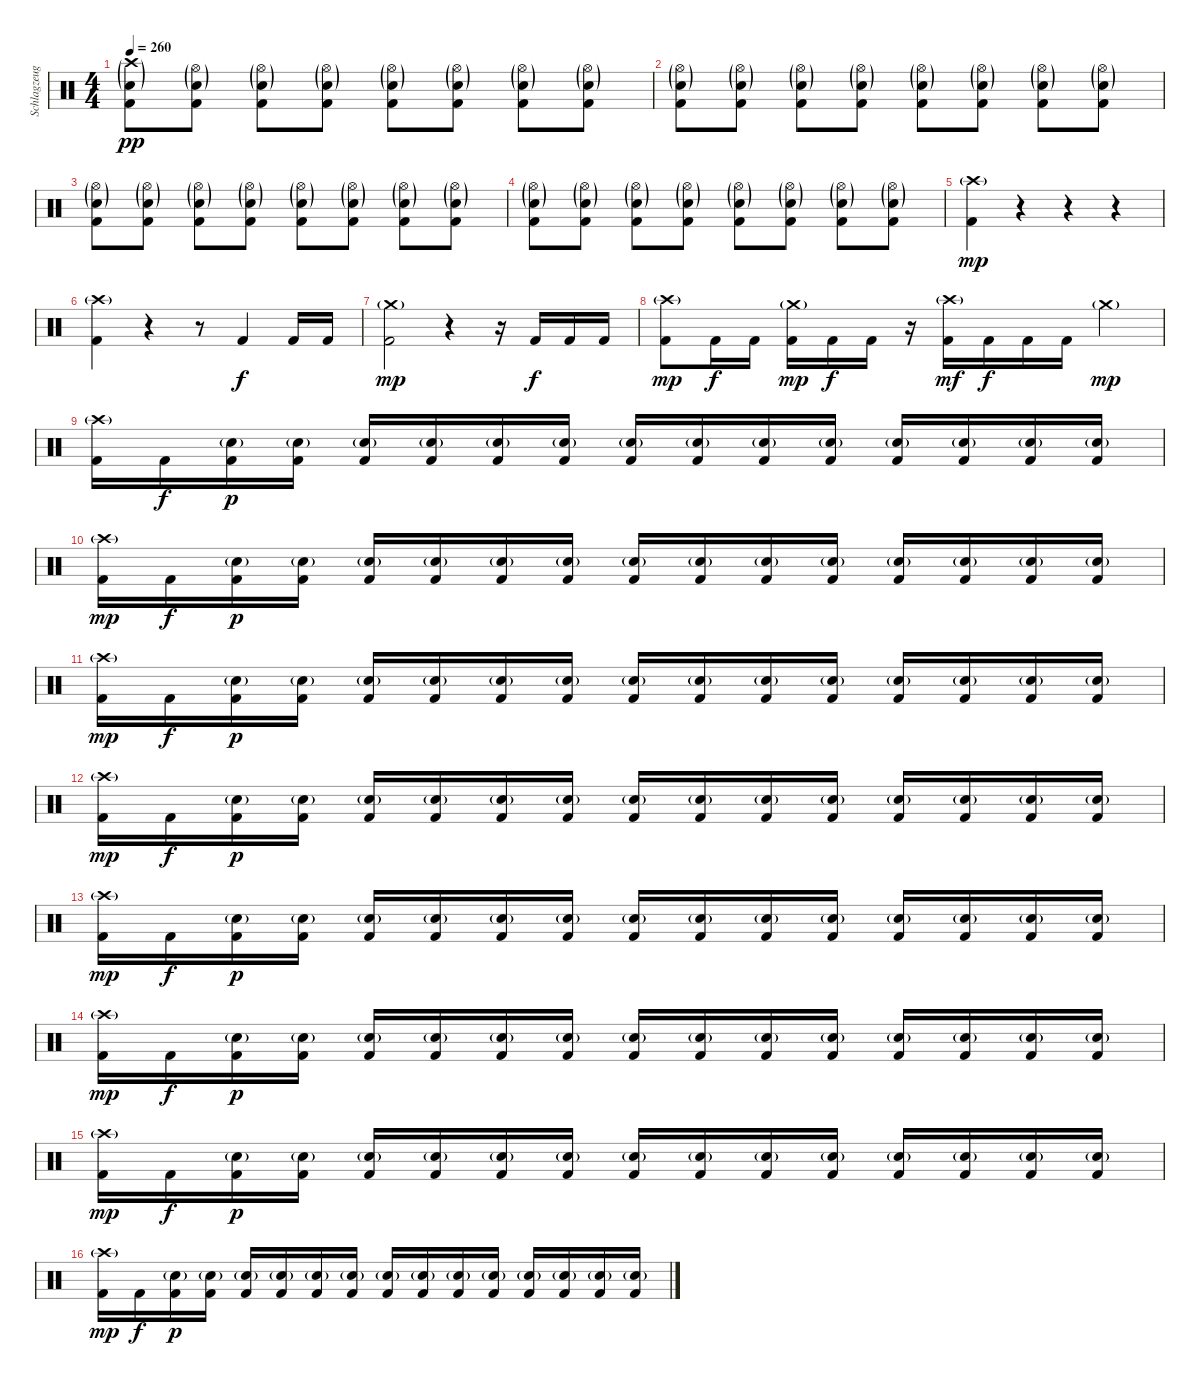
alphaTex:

\track ("Schlagzeug" "Schlagzeug") {instrument percussion}
\staff {score}
\articulation defaults
\ts (4 4)
\tempo 260
\clef neutral
\ks c
("Crash high (hit)"{g} "Electric Snare (hit)"{g} "Kick (hit) 2").8{dy pp} ("Hi-Hat (open)"{g} "Electric Snare (hit)"{g} "Kick (hit) 2").8 ("Hi-Hat (open)"{g} "Electric Snare (hit)"{g} "Kick (hit) 2").8 ("Hi-Hat (open)"{g} "Electric Snare (hit)"{g} "Kick (hit) 2").8 ("Hi-Hat (open)"{g} "Electric Snare (hit)"{g} "Kick (hit) 2").8 ("Hi-Hat (open)"{g} "Electric Snare (hit)"{g} "Kick (hit) 2").8 ("Hi-Hat (open)"{g} "Electric Snare (hit)"{g} "Kick (hit) 2").8 ("Hi-Hat (open)"{g} "Electric Snare (hit)"{g} "Kick (hit) 2").8 |
("Hi-Hat (open)"{g} "Electric Snare (hit)"{g} "Kick (hit) 2").8 ("Hi-Hat (open)"{g} "Electric Snare (hit)"{g} "Kick (hit) 2").8 ("Hi-Hat (open)"{g} "Electric Snare (hit)"{g} "Kick (hit) 2").8 ("Hi-Hat (open)"{g} "Electric Snare (hit)"{g} "Kick (hit) 2").8 ("Hi-Hat (open)"{g} "Electric Snare (hit)"{g} "Kick (hit) 2").8 ("Hi-Hat (open)"{g} "Electric Snare (hit)"{g} "Kick (hit) 2").8 ("Hi-Hat (open)"{g} "Electric Snare (hit)"{g} "Kick (hit) 2").8 ("Hi-Hat (open)"{g} "Electric Snare (hit)"{g} "Kick (hit) 2").8 |
("Hi-Hat (open)"{g} "Electric Snare (hit)"{g} "Kick (hit) 2").8 ("Hi-Hat (open)"{g} "Electric Snare (hit)"{g} "Kick (hit) 2").8 ("Hi-Hat (open)"{g} "Electric Snare (hit)"{g} "Kick (hit) 2").8 ("Hi-Hat (open)"{g} "Electric Snare (hit)"{g} "Kick (hit) 2").8 ("Hi-Hat (open)"{g} "Electric Snare (hit)"{g} "Kick (hit) 2").8 ("Hi-Hat (open)"{g} "Electric Snare (hit)"{g} "Kick (hit) 2").8 ("Hi-Hat (open)"{g} "Electric Snare (hit)"{g} "Kick (hit) 2").8 ("Hi-Hat (open)"{g} "Electric Snare (hit)"{g} "Kick (hit) 2").8 |
("Hi-Hat (open)"{g} "Electric Snare (hit)"{g} "Kick (hit) 2").8 ("Hi-Hat (open)"{g} "Electric Snare (hit)"{g} "Kick (hit) 2").8 ("Hi-Hat (open)"{g} "Electric Snare (hit)"{g} "Kick (hit) 2").8 ("Hi-Hat (open)"{g} "Electric Snare (hit)"{g} "Kick (hit) 2").8 ("Hi-Hat (open)"{g} "Electric Snare (hit)"{g} "Kick (hit) 2").8 ("Hi-Hat (open)"{g} "Electric Snare (hit)"{g} "Kick (hit) 2").8 ("Hi-Hat (open)"{g} "Electric Snare (hit)"{g} "Kick (hit) 2").8 ("Hi-Hat (open)"{g} "Electric Snare (hit)"{g} "Kick (hit) 2").8 |
("Crash high (hit)"{g} "Kick (hit) 2").4{dy mp} r.4 r.4 r.4 |
("Crash high (hit)"{g} "Kick (hit) 2").4 r.4 r.8 "Kick (hit) 2".4{dy f} "Kick (hit) 2".16 "Kick (hit) 2".16 |
("Crash medium (hit)"{g} "Kick (hit) 2").2{dy mp} r.4 r.16 "Kick (hit) 2".16{dy f} "Kick (hit) 2".16 "Kick (hit) 2".16 |
("Crash high (hit)"{g} "Kick (hit) 2").8{dy mp} "Kick (hit) 2".16{dy f} "Kick (hit) 2".16 ("Crash medium (hit)"{g} "Kick (hit) 2").16{dy mp} "Kick (hit) 2".16{dy f} "Kick (hit) 2".16 r.16 ("Crash high (hit)"{g} "Kick (hit) 2").16{dy mf} "Kick (hit) 2".16{dy f} "Kick (hit) 2".16 "Kick (hit) 2".16 "Crash medium (hit)"{g}.4{dy mp} |
("Crash high (hit)"{g} "Kick (hit) 2").16 "Kick (hit) 2".16{dy f} ("Electric Snare (hit)"{g} "Kick (hit) 2").16{dy p} ("Electric Snare (hit)"{g} "Kick (hit) 2").16 ("Electric Snare (hit)"{g} "Kick (hit) 2").16 ("Electric Snare (hit)"{g} "Kick (hit) 2").16 ("Electric Snare (hit)"{g} "Kick (hit) 2").16 ("Electric Snare (hit)"{g} "Kick (hit) 2").16 ("Electric Snare (hit)"{g} "Kick (hit) 2").16 ("Electric Snare (hit)"{g} "Kick (hit) 2").16 ("Electric Snare (hit)"{g} "Kick (hit) 2").16 ("Electric Snare (hit)"{g} "Kick (hit) 2").16 ("Electric Snare (hit)"{g} "Kick (hit) 2").16 ("Electric Snare (hit)"{g} "Kick (hit) 2").16 ("Electric Snare (hit)"{g} "Kick (hit) 2").16 ("Electric Snare (hit)"{g} "Kick (hit) 2").16 |
("Crash high (hit)"{g} "Kick (hit) 2").16{dy mp} "Kick (hit) 2".16{dy f} ("Electric Snare (hit)"{g} "Kick (hit) 2").16{dy p} ("Electric Snare (hit)"{g} "Kick (hit) 2").16 ("Electric Snare (hit)"{g} "Kick (hit) 2").16 ("Electric Snare (hit)"{g} "Kick (hit) 2").16 ("Electric Snare (hit)"{g} "Kick (hit) 2").16 ("Electric Snare (hit)"{g} "Kick (hit) 2").16 ("Electric Snare (hit)"{g} "Kick (hit) 2").16 ("Electric Snare (hit)"{g} "Kick (hit) 2").16 ("Electric Snare (hit)"{g} "Kick (hit) 2").16 ("Electric Snare (hit)"{g} "Kick (hit) 2").16 ("Electric Snare (hit)"{g} "Kick (hit) 2").16 ("Electric Snare (hit)"{g} "Kick (hit) 2").16 ("Electric Snare (hit)"{g} "Kick (hit) 2").16 ("Electric Snare (hit)"{g} "Kick (hit) 2").16 |
("Crash high (hit)"{g} "Kick (hit) 2").16{dy mp} "Kick (hit) 2".16{dy f} ("Electric Snare (hit)"{g} "Kick (hit) 2").16{dy p} ("Electric Snare (hit)"{g} "Kick (hit) 2").16 ("Electric Snare (hit)"{g} "Kick (hit) 2").16 ("Electric Snare (hit)"{g} "Kick (hit) 2").16 ("Electric Snare (hit)"{g} "Kick (hit) 2").16 ("Electric Snare (hit)"{g} "Kick (hit) 2").16 ("Electric Snare (hit)"{g} "Kick (hit) 2").16 ("Electric Snare (hit)"{g} "Kick (hit) 2").16 ("Electric Snare (hit)"{g} "Kick (hit) 2").16 ("Electric Snare (hit)"{g} "Kick (hit) 2").16 ("Electric Snare (hit)"{g} "Kick (hit) 2").16 ("Electric Snare (hit)"{g} "Kick (hit) 2").16 ("Electric Snare (hit)"{g} "Kick (hit) 2").16 ("Electric Snare (hit)"{g} "Kick (hit) 2").16 |
("Crash high (hit)"{g} "Kick (hit) 2").16{dy mp} "Kick (hit) 2".16{dy f} ("Electric Snare (hit)"{g} "Kick (hit) 2").16{dy p} ("Electric Snare (hit)"{g} "Kick (hit) 2").16 ("Electric Snare (hit)"{g} "Kick (hit) 2").16 ("Electric Snare (hit)"{g} "Kick (hit) 2").16 ("Electric Snare (hit)"{g} "Kick (hit) 2").16 ("Electric Snare (hit)"{g} "Kick (hit) 2").16 ("Electric Snare (hit)"{g} "Kick (hit) 2").16 ("Electric Snare (hit)"{g} "Kick (hit) 2").16 ("Electric Snare (hit)"{g} "Kick (hit) 2").16 ("Electric Snare (hit)"{g} "Kick (hit) 2").16 ("Electric Snare (hit)"{g} "Kick (hit) 2").16 ("Electric Snare (hit)"{g} "Kick (hit) 2").16 ("Electric Snare (hit)"{g} "Kick (hit) 2").16 ("Electric Snare (hit)"{g} "Kick (hit) 2").16 |
("Crash high (hit)"{g} "Kick (hit) 2").16{dy mp} "Kick (hit) 2".16{dy f} ("Electric Snare (hit)"{g} "Kick (hit) 2").16{dy p} ("Electric Snare (hit)"{g} "Kick (hit) 2").16 ("Electric Snare (hit)"{g} "Kick (hit) 2").16 ("Electric Snare (hit)"{g} "Kick (hit) 2").16 ("Electric Snare (hit)"{g} "Kick (hit) 2").16 ("Electric Snare (hit)"{g} "Kick (hit) 2").16 ("Electric Snare (hit)"{g} "Kick (hit) 2").16 ("Electric Snare (hit)"{g} "Kick (hit) 2").16 ("Electric Snare (hit)"{g} "Kick (hit) 2").16 ("Electric Snare (hit)"{g} "Kick (hit) 2").16 ("Electric Snare (hit)"{g} "Kick (hit) 2").16 ("Electric Snare (hit)"{g} "Kick (hit) 2").16 ("Electric Snare (hit)"{g} "Kick (hit) 2").16 ("Electric Snare (hit)"{g} "Kick (hit) 2").16 |
("Crash high (hit)"{g} "Kick (hit) 2").16{dy mp} "Kick (hit) 2".16{dy f} ("Electric Snare (hit)"{g} "Kick (hit) 2").16{dy p} ("Electric Snare (hit)"{g} "Kick (hit) 2").16 ("Electric Snare (hit)"{g} "Kick (hit) 2").16 ("Electric Snare (hit)"{g} "Kick (hit) 2").16 ("Electric Snare (hit)"{g} "Kick (hit) 2").16 ("Electric Snare (hit)"{g} "Kick (hit) 2").16 ("Electric Snare (hit)"{g} "Kick (hit) 2").16 ("Electric Snare (hit)"{g} "Kick (hit) 2").16 ("Electric Snare (hit)"{g} "Kick (hit) 2").16 ("Electric Snare (hit)"{g} "Kick (hit) 2").16 ("Electric Snare (hit)"{g} "Kick (hit) 2").16 ("Electric Snare (hit)"{g} "Kick (hit) 2").16 ("Electric Snare (hit)"{g} "Kick (hit) 2").16 ("Electric Snare (hit)"{g} "Kick (hit) 2").16 |
("Crash high (hit)"{g} "Kick (hit) 2").16{dy mp} "Kick (hit) 2".16{dy f} ("Electric Snare (hit)"{g} "Kick (hit) 2").16{dy p} ("Electric Snare (hit)"{g} "Kick (hit) 2").16 ("Electric Snare (hit)"{g} "Kick (hit) 2").16 ("Electric Snare (hit)"{g} "Kick (hit) 2").16 ("Electric Snare (hit)"{g} "Kick (hit) 2").16 ("Electric Snare (hit)"{g} "Kick (hit) 2").16 ("Electric Snare (hit)"{g} "Kick (hit) 2").16 ("Electric Snare (hit)"{g} "Kick (hit) 2").16 ("Electric Snare (hit)"{g} "Kick (hit) 2").16 ("Electric Snare (hit)"{g} "Kick (hit) 2").16 ("Electric Snare (hit)"{g} "Kick (hit) 2").16 ("Electric Snare (hit)"{g} "Kick (hit) 2").16 ("Electric Snare (hit)"{g} "Kick (hit) 2").16 ("Electric Snare (hit)"{g} "Kick (hit) 2").16 |
("Crash high (hit)"{g} "Kick (hit) 2").16{dy mp} "Kick (hit) 2".16{dy f} ("Electric Snare (hit)"{g} "Kick (hit) 2").16{dy p} ("Electric Snare (hit)"{g} "Kick (hit) 2").16 ("Electric Snare (hit)"{g} "Kick (hit) 2").16 ("Electric Snare (hit)"{g} "Kick (hit) 2").16 ("Electric Snare (hit)"{g} "Kick (hit) 2").16 ("Electric Snare (hit)"{g} "Kick (hit) 2").16 ("Electric Snare (hit)"{g} "Kick (hit) 2").16 ("Electric Snare (hit)"{g} "Kick (hit) 2").16 ("Electric Snare (hit)"{g} "Kick (hit) 2").16 ("Electric Snare (hit)"{g} "Kick (hit) 2").16 ("Electric Snare (hit)"{g} "Kick (hit) 2").16 ("Electric Snare (hit)"{g} "Kick (hit) 2").16 ("Electric Snare (hit)"{g} "Kick (hit) 2").16 ("Electric Snare (hit)"{g} "Kick (hit) 2").16
